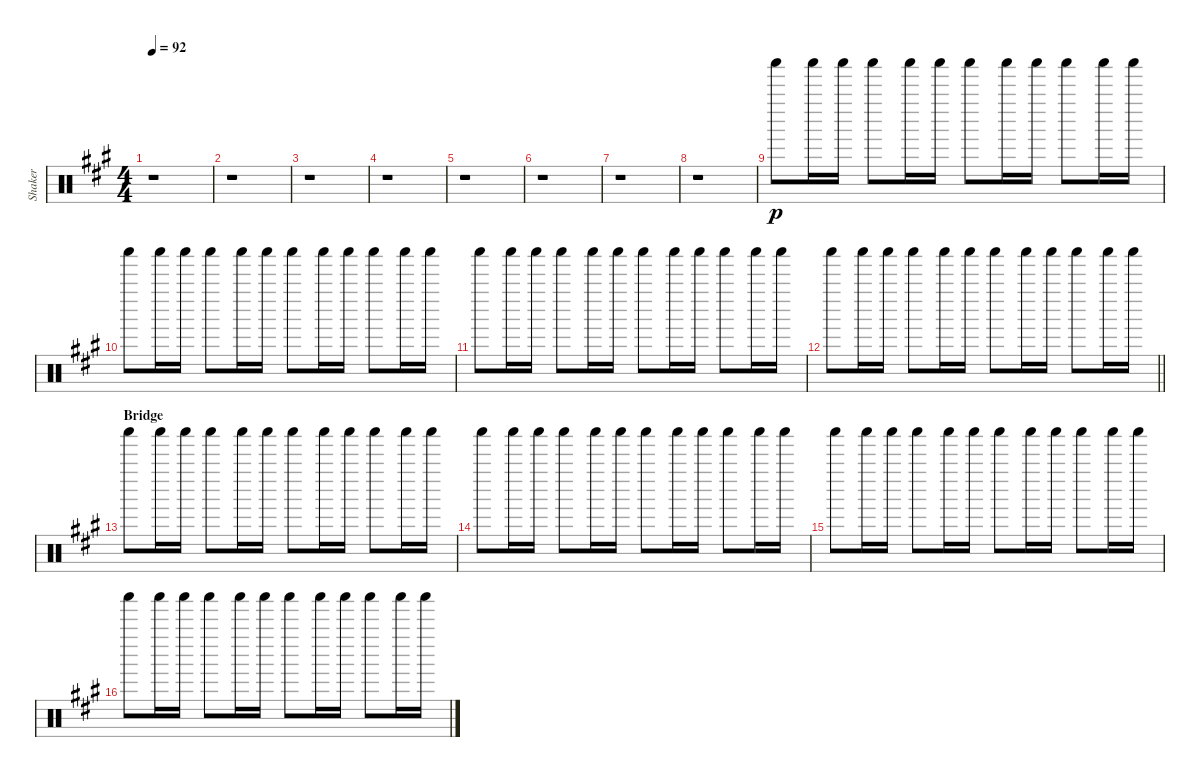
\track ("Shaker" "Shaker") {instrument percussion}
\staff {score}
\articulation defaults
\ts (4 4)
\tempo 92
\clef neutral
\ks f#minor
r.1{dy p} |
r.1 |
r.1 |
r.1 |
r.1 |
r.1 |
r.1 |
r.1 |
"Shaker (hit)".8 "Shaker (hit)".16 "Shaker (hit)".16 "Shaker (hit)".8 "Shaker (hit)".16 "Shaker (hit)".16 "Shaker (hit)".8 "Shaker (hit)".16 "Shaker (hit)".16 "Shaker (hit)".8 "Shaker (hit)".16 "Shaker (hit)".16 |
"Shaker (hit)".8 "Shaker (hit)".16 "Shaker (hit)".16 "Shaker (hit)".8 "Shaker (hit)".16 "Shaker (hit)".16 "Shaker (hit)".8 "Shaker (hit)".16 "Shaker (hit)".16 "Shaker (hit)".8 "Shaker (hit)".16 "Shaker (hit)".16 |
"Shaker (hit)".8 "Shaker (hit)".16 "Shaker (hit)".16 "Shaker (hit)".8 "Shaker (hit)".16 "Shaker (hit)".16 "Shaker (hit)".8 "Shaker (hit)".16 "Shaker (hit)".16 "Shaker (hit)".8 "Shaker (hit)".16 "Shaker (hit)".16 |
\barLineRight lightlight "Shaker (hit)".8 "Shaker (hit)".16 "Shaker (hit)".16 "Shaker (hit)".8 "Shaker (hit)".16 "Shaker (hit)".16 "Shaker (hit)".8 "Shaker (hit)".16 "Shaker (hit)".16 "Shaker (hit)".8 "Shaker (hit)".16 "Shaker (hit)".16
|
\section ("" "Bridge")
"Shaker (hit)".8 "Shaker (hit)".16 "Shaker (hit)".16 "Shaker (hit)".8 "Shaker (hit)".16 "Shaker (hit)".16 "Shaker (hit)".8 "Shaker (hit)".16 "Shaker (hit)".16 "Shaker (hit)".8 "Shaker (hit)".16 "Shaker (hit)".16 |
"Shaker (hit)".8 "Shaker (hit)".16 "Shaker (hit)".16 "Shaker (hit)".8 "Shaker (hit)".16 "Shaker (hit)".16 "Shaker (hit)".8 "Shaker (hit)".16 "Shaker (hit)".16 "Shaker (hit)".8 "Shaker (hit)".16 "Shaker (hit)".16 |
"Shaker (hit)".8 "Shaker (hit)".16 "Shaker (hit)".16 "Shaker (hit)".8 "Shaker (hit)".16 "Shaker (hit)".16 "Shaker (hit)".8 "Shaker (hit)".16 "Shaker (hit)".16 "Shaker (hit)".8 "Shaker (hit)".16 "Shaker (hit)".16 |
"Shaker (hit)".8 "Shaker (hit)".16 "Shaker (hit)".16 "Shaker (hit)".8 "Shaker (hit)".16 "Shaker (hit)".16 "Shaker (hit)".8 "Shaker (hit)".16 "Shaker (hit)".16 "Shaker (hit)".8 "Shaker (hit)".16 "Shaker (hit)".16
